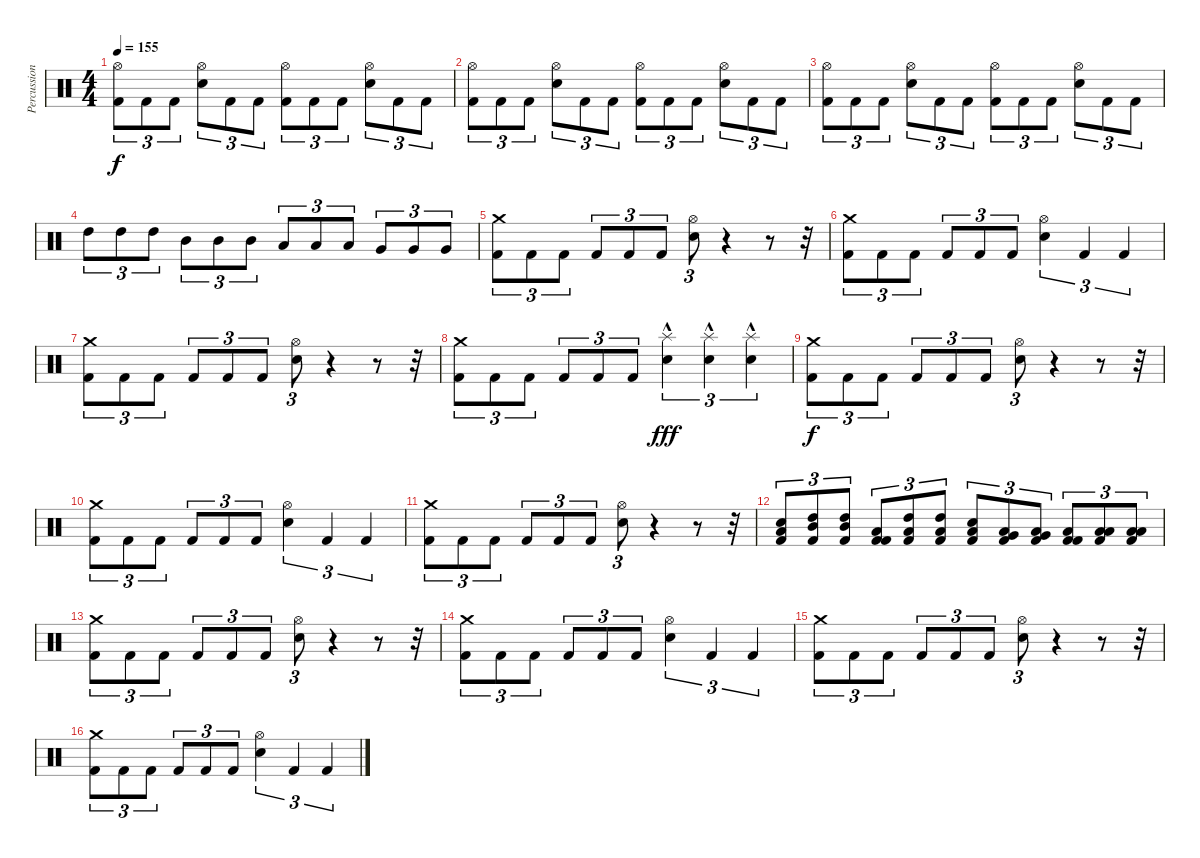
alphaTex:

\track ("Percussion" "Percussion") {instrument percussion}
\staff {score}
\articulation defaults
\ts (4 4)
\tempo 155
\clef neutral
\ks c
("Hi-Hat (open)" "Kick (hit) 2").8{tu (3 2) dy f} "Kick (hit) 2".8{tu (3 2)} "Kick (hit) 2".8{tu (3 2)} ("Hi-Hat (open)" "Snare (hit) 2").8{tu (3 2)} "Kick (hit) 2".8{tu (3 2)} "Kick (hit) 2".8{tu (3 2)} ("Hi-Hat (open)" "Kick (hit) 2").8{tu (3 2)} "Kick (hit) 2".8{tu (3 2)} "Kick (hit) 2".8{tu (3 2)} ("Hi-Hat (open)" "Snare (hit) 2").8{tu (3 2)} "Kick (hit) 2".8{tu (3 2)} "Kick (hit) 2".8{tu (3 2)} |
("Hi-Hat (open)" "Kick (hit) 2").8{tu (3 2)} "Kick (hit) 2".8{tu (3 2)} "Kick (hit) 2".8{tu (3 2)} ("Hi-Hat (open)" "Snare (hit) 2").8{tu (3 2)} "Kick (hit) 2".8{tu (3 2)} "Kick (hit) 2".8{tu (3 2)} ("Hi-Hat (open)" "Kick (hit) 2").8{tu (3 2)} "Kick (hit) 2".8{tu (3 2)} "Kick (hit) 2".8{tu (3 2)} ("Hi-Hat (open)" "Snare (hit) 2").8{tu (3 2)} "Kick (hit) 2".8{tu (3 2)} "Kick (hit) 2".8{tu (3 2)} |
("Hi-Hat (open)" "Kick (hit) 2").8{tu (3 2)} "Kick (hit) 2".8{tu (3 2)} "Kick (hit) 2".8{tu (3 2)} ("Hi-Hat (open)" "Snare (hit) 2").8{tu (3 2)} "Kick (hit) 2".8{tu (3 2)} "Kick (hit) 2".8{tu (3 2)} ("Hi-Hat (open)" "Kick (hit) 2").8{tu (3 2)} "Kick (hit) 2".8{tu (3 2)} "Kick (hit) 2".8{tu (3 2)} ("Hi-Hat (open)" "Snare (hit) 2").8{tu (3 2)} "Kick (hit) 2".8{tu (3 2)} "Kick (hit) 2".8{tu (3 2)} |
"High Tom (hit)".8{tu (3 2)} "High Tom (hit)".8{tu (3 2)} "High Tom (hit)".8{tu (3 2)} "Mid Tom (hit)".8{tu (3 2)} "Mid Tom (hit)".8{tu (3 2)} "Mid Tom (hit)".8{tu (3 2)} "Low Tom (hit)".8{tu (3 2)} "Low Tom (hit)".8{tu (3 2)} "Low Tom (hit)".8{tu (3 2)} "Very Low Tom (hit)".8{tu (3 2)} "Very Low Tom (hit)".8{tu (3 2)} "Very Low Tom (hit)".8{tu (3 2)} |
("Crash medium (hit)" "Kick (hit) 2").8{tu (3 2)} "Kick (hit) 2".8{tu (3 2)} "Kick (hit) 2".8{tu (3 2)} "Kick (hit) 2".8{tu (3 2)} "Kick (hit) 2".8{tu (3 2)} "Kick (hit) 2".8{tu (3 2)} ("Hi-Hat (open)" "Snare (hit) 2").8{tu (3 2)} r.4 r.8 r.32 |
("Crash medium (hit)" "Kick (hit) 2").8{tu (3 2)} "Kick (hit) 2".8{tu (3 2)} "Kick (hit) 2".8{tu (3 2)} "Kick (hit) 2".8{tu (3 2)} "Kick (hit) 2".8{tu (3 2)} "Kick (hit) 2".8{tu (3 2)} ("Hi-Hat (open)" "Snare (hit) 2").4{tu (3 2)} "Kick (hit) 2".4{tu (3 2)} "Kick (hit) 2".4{tu (3 2)} |
("Crash medium (hit)" "Kick (hit) 2").8{tu (3 2)} "Kick (hit) 2".8{tu (3 2)} "Kick (hit) 2".8{tu (3 2)} "Kick (hit) 2".8{tu (3 2)} "Kick (hit) 2".8{tu (3 2)} "Kick (hit) 2".8{tu (3 2)} ("Hi-Hat (open)" "Snare (hit) 2").8{tu (3 2)} r.4 r.8 r.32 |
("Crash medium (hit)" "Kick (hit) 2").8{tu (3 2)} "Kick (hit) 2".8{tu (3 2)} "Kick (hit) 2".8{tu (3 2)} "Kick (hit) 2".8{tu (3 2)} "Kick (hit) 2".8{tu (3 2)} "Kick (hit) 2".8{tu (3 2)} ("Splash (hit)"{hac} "Snare (hit) 2").4{tu (3 2) dy fff} ("Splash (hit)"{hac} "Snare (hit) 2").4{tu (3 2)} ("Splash (hit)"{hac} "Snare (hit) 2").4{tu (3 2)} |
("Crash medium (hit)" "Kick (hit) 2").8{tu (3 2) dy f} "Kick (hit) 2".8{tu (3 2)} "Kick (hit) 2".8{tu (3 2)} "Kick (hit) 2".8{tu (3 2)} "Kick (hit) 2".8{tu (3 2)} "Kick (hit) 2".8{tu (3 2)} ("Hi-Hat (open)" "Snare (hit) 2").8{tu (3 2)} r.4 r.8 r.32 |
("Crash medium (hit)" "Kick (hit) 2").8{tu (3 2)} "Kick (hit) 2".8{tu (3 2)} "Kick (hit) 2".8{tu (3 2)} "Kick (hit) 2".8{tu (3 2)} "Kick (hit) 2".8{tu (3 2)} "Kick (hit) 2".8{tu (3 2)} ("Hi-Hat (open)" "Snare (hit) 2").4{tu (3 2)} "Kick (hit) 2".4{tu (3 2)} "Kick (hit) 2".4{tu (3 2)} |
("Crash medium (hit)" "Kick (hit) 2").8{tu (3 2)} "Kick (hit) 2".8{tu (3 2)} "Kick (hit) 2".8{tu (3 2)} "Kick (hit) 2".8{tu (3 2)} "Kick (hit) 2".8{tu (3 2)} "Kick (hit) 2".8{tu (3 2)} ("Hi-Hat (open)" "Snare (hit) 2").8{tu (3 2)} r.4 r.8 r.32 |
("Low Tom (hit)" "Snare (hit) 2" "Kick (hit) 2").8{tu (3 2)} ("Mid Tom (hit)" "High Tom (hit)" "Kick (hit) 2").8{tu (3 2)} ("Mid Tom (hit)" "High Tom (hit)" "Kick (hit) 2").8{tu (3 2)} ("Low Tom (hit)" "Kick (hit) 2" "Kick (hit) 2").8{tu (3 2)} ("Low Tom (hit)" "High Tom (hit)" "Kick (hit) 2").8{tu (3 2)} ("Low Tom (hit)" "High Tom (hit)" "Kick (hit) 2").8{tu (3 2)} ("Low Tom (hit)" "Snare (hit) 2" "Kick (hit) 2").8{tu (3 2)} ("Low Tom (hit)" "Very Low Tom (hit)" "Kick (hit) 2").8{tu (3 2)} ("Low Tom (hit)" "Very Low Tom (hit)" "Kick (hit) 2").8{tu (3 2)} ("Low Tom (hit)" "Kick (hit) 2" "Kick (hit) 2").8{tu (3 2)} ("Low Tom (hit)" "Low Floor Tom (hit)" "Kick (hit) 2").8{tu (3 2)} ("Low Tom (hit)" "Low Floor Tom (hit)" "Kick (hit) 2").8{tu (3 2)} |
("Crash medium (hit)" "Kick (hit) 2").8{tu (3 2)} "Kick (hit) 2".8{tu (3 2)} "Kick (hit) 2".8{tu (3 2)} "Kick (hit) 2".8{tu (3 2)} "Kick (hit) 2".8{tu (3 2)} "Kick (hit) 2".8{tu (3 2)} ("Hi-Hat (open)" "Snare (hit) 2").8{tu (3 2)} r.4 r.8 r.32 |
("Crash medium (hit)" "Kick (hit) 2").8{tu (3 2)} "Kick (hit) 2".8{tu (3 2)} "Kick (hit) 2".8{tu (3 2)} "Kick (hit) 2".8{tu (3 2)} "Kick (hit) 2".8{tu (3 2)} "Kick (hit) 2".8{tu (3 2)} ("Hi-Hat (open)" "Snare (hit) 2").4{tu (3 2)} "Kick (hit) 2".4{tu (3 2)} "Kick (hit) 2".4{tu (3 2)} |
("Crash medium (hit)" "Kick (hit) 2").8{tu (3 2)} "Kick (hit) 2".8{tu (3 2)} "Kick (hit) 2".8{tu (3 2)} "Kick (hit) 2".8{tu (3 2)} "Kick (hit) 2".8{tu (3 2)} "Kick (hit) 2".8{tu (3 2)} ("Hi-Hat (open)" "Snare (hit) 2").8{tu (3 2)} r.4 r.8 r.32 |
("Crash medium (hit)" "Kick (hit) 2").8{tu (3 2)} "Kick (hit) 2".8{tu (3 2)} "Kick (hit) 2".8{tu (3 2)} "Kick (hit) 2".8{tu (3 2)} "Kick (hit) 2".8{tu (3 2)} "Kick (hit) 2".8{tu (3 2)} ("Hi-Hat (open)" "Snare (hit) 2").4{tu (3 2)} "Kick (hit) 2".4{tu (3 2)} "Kick (hit) 2".4{tu (3 2)}
